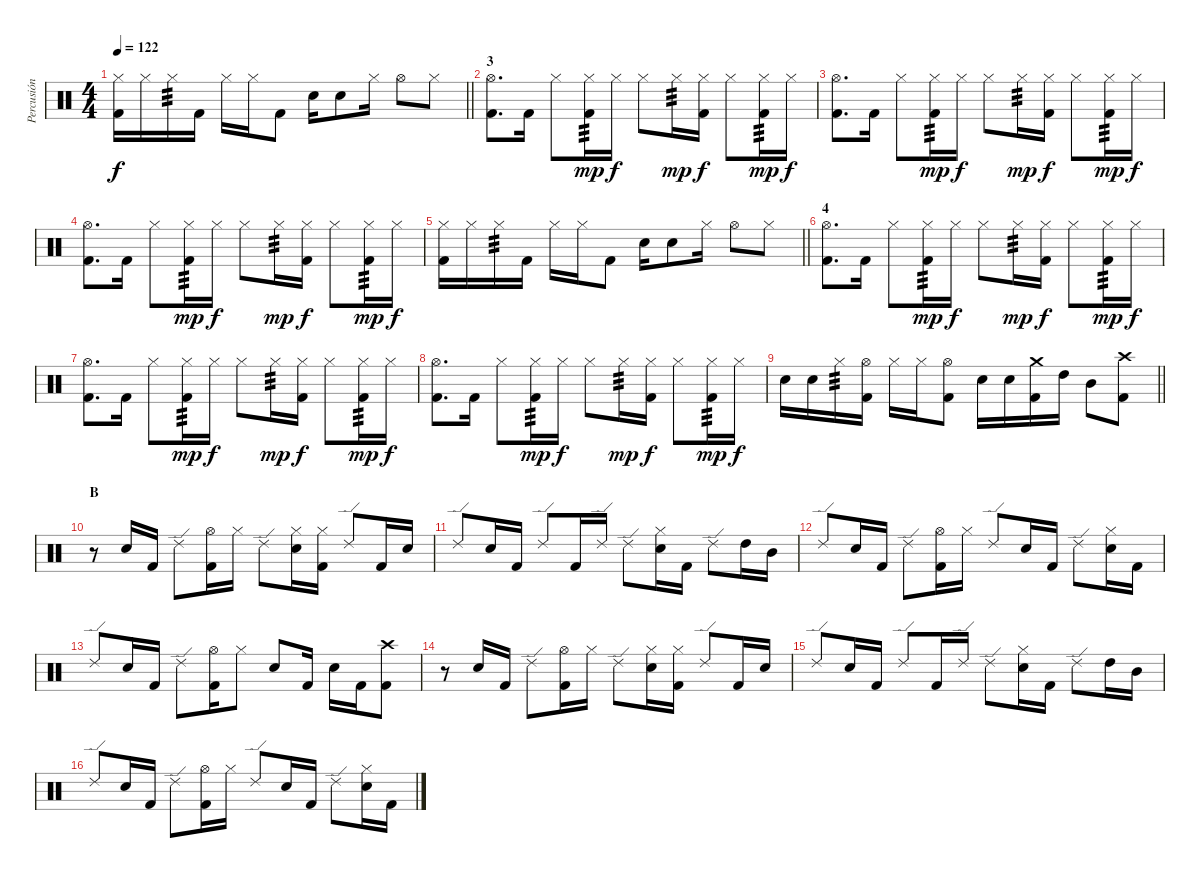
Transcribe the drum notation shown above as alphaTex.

\track ("Percusión" "Percusión") {instrument percussion}
\staff {score}
\articulation defaults
\ts (4 4)
\tempo 122
\clef neutral
\barLineRight lightlight
\ks c
("Hi-Hat (closed)" "Kick (hit) 2").16{dy f} "Hi-Hat (closed)".16 "Hi-Hat (closed)".16{tp 3} "Kick (hit) 2".16 "Hi-Hat (closed)".16 "Hi-Hat (closed)".16 "Kick (hit) 2".8 "Electric Snare (hit)".16 "Electric Snare (hit)".8 "Hi-Hat (closed)".16 "Hi-Hat (open)".8 "Hi-Hat (closed)".8 |
\section ("" "3")
("Hi-Hat (open)" "Kick (hit) 2").8{d} "Kick (hit) 2".16 "Hi-Hat (closed)".8 ("Kick (hit) 2" "Hi-Hat (closed)").16{tp 3 dy mp} "Hi-Hat (closed)".16{dy f} "Hi-Hat (closed)".8 "Hi-Hat (closed)".16{tp 3 dy mp} ("Kick (hit) 2" "Hi-Hat (closed)").16{dy f} "Hi-Hat (closed)".8 ("Kick (hit) 2" "Hi-Hat (closed)").16{tp 3 dy mp} "Hi-Hat (closed)".16{dy f} |
("Hi-Hat (open)" "Kick (hit) 2").8{d} "Kick (hit) 2".16 "Hi-Hat (closed)".8 ("Kick (hit) 2" "Hi-Hat (closed)").16{tp 3 dy mp} "Hi-Hat (closed)".16{dy f} "Hi-Hat (closed)".8 "Hi-Hat (closed)".16{tp 3 dy mp} ("Kick (hit) 2" "Hi-Hat (closed)").16{dy f} "Hi-Hat (closed)".8 ("Kick (hit) 2" "Hi-Hat (closed)").16{tp 3 dy mp} "Hi-Hat (closed)".16{dy f} |
("Hi-Hat (open)" "Kick (hit) 2").8{d} "Kick (hit) 2".16 "Hi-Hat (closed)".8 ("Kick (hit) 2" "Hi-Hat (closed)").16{tp 3 dy mp} "Hi-Hat (closed)".16{dy f} "Hi-Hat (closed)".8 "Hi-Hat (closed)".16{tp 3 dy mp} ("Kick (hit) 2" "Hi-Hat (closed)").16{dy f} "Hi-Hat (closed)".8 ("Kick (hit) 2" "Hi-Hat (closed)").16{tp 3 dy mp} "Hi-Hat (closed)".16{dy f} |
\barLineRight lightlight
("Hi-Hat (closed)" "Kick (hit) 2").16 "Hi-Hat (closed)".16 "Hi-Hat (closed)".16{tp 3} "Kick (hit) 2".16 "Hi-Hat (closed)".16 "Hi-Hat (closed)".16 "Kick (hit) 2".8 "Electric Snare (hit)".16 "Electric Snare (hit)".8 "Hi-Hat (closed)".16 "Hi-Hat (open)".8 "Hi-Hat (closed)".8 |
\section ("" "4")
("Hi-Hat (open)" "Kick (hit) 2").8{d} "Kick (hit) 2".16 "Hi-Hat (closed)".8 ("Kick (hit) 2" "Hi-Hat (closed)").16{tp 3 dy mp} "Hi-Hat (closed)".16{dy f} "Hi-Hat (closed)".8 "Hi-Hat (closed)".16{tp 3 dy mp} ("Kick (hit) 2" "Hi-Hat (closed)").16{dy f} "Hi-Hat (closed)".8 ("Kick (hit) 2" "Hi-Hat (closed)").16{tp 3 dy mp} "Hi-Hat (closed)".16{dy f} |
("Hi-Hat (open)" "Kick (hit) 2").8{d} "Kick (hit) 2".16 "Hi-Hat (closed)".8 ("Kick (hit) 2" "Hi-Hat (closed)").16{tp 3 dy mp} "Hi-Hat (closed)".16{dy f} "Hi-Hat (closed)".8 "Hi-Hat (closed)".16{tp 3 dy mp} ("Kick (hit) 2" "Hi-Hat (closed)").16{dy f} "Hi-Hat (closed)".8 ("Kick (hit) 2" "Hi-Hat (closed)").16{tp 3 dy mp} "Hi-Hat (closed)".16{dy f} |
("Hi-Hat (open)" "Kick (hit) 2").8{d} "Kick (hit) 2".16 "Hi-Hat (closed)".8 ("Kick (hit) 2" "Hi-Hat (closed)").16{tp 3 dy mp} "Hi-Hat (closed)".16{dy f} "Hi-Hat (closed)".8 "Hi-Hat (closed)".16{tp 3 dy mp} ("Kick (hit) 2" "Hi-Hat (closed)").16{dy f} "Hi-Hat (closed)".8 ("Kick (hit) 2" "Hi-Hat (closed)").16{tp 3 dy mp} "Hi-Hat (closed)".16{dy f} |
\barLineRight lightlight "Electric Snare (hit)".16 "Electric Snare (hit)".16 "Hi-Hat (closed)".16{tp 3}
("Hi-Hat (open)" "Kick (hit) 2").16 "Hi-Hat (closed)".16 "Hi-Hat (closed)".16 ("Hi-Hat (open)" "Kick (hit) 2").8 "Electric Snare (hit)".16 "Electric Snare (hit)".16 ("Crash medium (hit)" "Kick (hit) 2").16 "High Tom (hit)".16 "Mid Tom (hit)".8 ("Crash high (hit)" "Kick (hit) 2").8 |
\section ("" "B")
r.8 "Electric Snare (hit)".16 "Kick (hit) 2".16 "Ride (edge) 2".8 ("Hi-Hat (open)" "Kick (hit) 2").16 "Hi-Hat (closed)".16 "Ride (edge) 2".8 ("Electric Snare (hit)" "Hi-Hat (closed)").16 ("Kick (hit) 2" "Hi-Hat (closed)").16 "Ride (edge) 2".8 "Kick (hit) 2".16 "Electric Snare (hit)".16 |
"Ride (edge) 2".8 "Electric Snare (hit)".16 "Kick (hit) 2".16 "Ride (edge) 2".8 "Kick (hit) 2".16 "Ride (edge) 2".16 "Ride (edge) 2".8 ("Hi-Hat (closed)" "Electric Snare (hit)").16 "Kick (hit) 2".16 "Ride (edge) 2".8 "High Tom (hit)".16 "Mid Tom (hit)".16 |
"Ride (edge) 2".8 "Electric Snare (hit)".16 "Kick (hit) 2".16 "Ride (edge) 2".8 ("Hi-Hat (open)" "Kick (hit) 2").16 "Hi-Hat (closed)".16 "Ride (edge) 2".8 "Electric Snare (hit)".16 "Kick (hit) 2".16 "Ride (edge) 2".8 ("Hi-Hat (closed)" "Electric Snare (hit)").16 "Kick (hit) 2".16 |
"Ride (edge) 2".8 "Electric Snare (hit)".16 "Kick (hit) 2".16 "Ride (edge) 2".8 ("Hi-Hat (open)" "Kick (hit) 2").16 "Hi-Hat (closed)".8 "Electric Snare (hit)".8 "Kick (hit) 2".16 "Electric Snare (hit)".16 "Kick (hit) 2".16 ("Crash high (hit)" "Kick (hit) 2").8 |
r.8 "Electric Snare (hit)".16 "Kick (hit) 2".16 "Ride (edge) 2".8 ("Hi-Hat (open)" "Kick (hit) 2").16 "Hi-Hat (closed)".16 "Ride (edge) 2".8 ("Electric Snare (hit)" "Hi-Hat (closed)").16 ("Kick (hit) 2" "Hi-Hat (closed)").16 "Ride (edge) 2".8 "Kick (hit) 2".16 "Electric Snare (hit)".16 |
"Ride (edge) 2".8 "Electric Snare (hit)".16 "Kick (hit) 2".16 "Ride (edge) 2".8 "Kick (hit) 2".16 "Ride (edge) 2".16 "Ride (edge) 2".8 ("Hi-Hat (closed)" "Electric Snare (hit)").16 "Kick (hit) 2".16 "Ride (edge) 2".8 "High Tom (hit)".16 "Mid Tom (hit)".16 |
"Ride (edge) 2".8 "Electric Snare (hit)".16 "Kick (hit) 2".16 "Ride (edge) 2".8 ("Hi-Hat (open)" "Kick (hit) 2").16 "Hi-Hat (closed)".16 "Ride (edge) 2".8 "Electric Snare (hit)".16 "Kick (hit) 2".16 "Ride (edge) 2".8 ("Hi-Hat (closed)" "Electric Snare (hit)").16 "Kick (hit) 2".16
